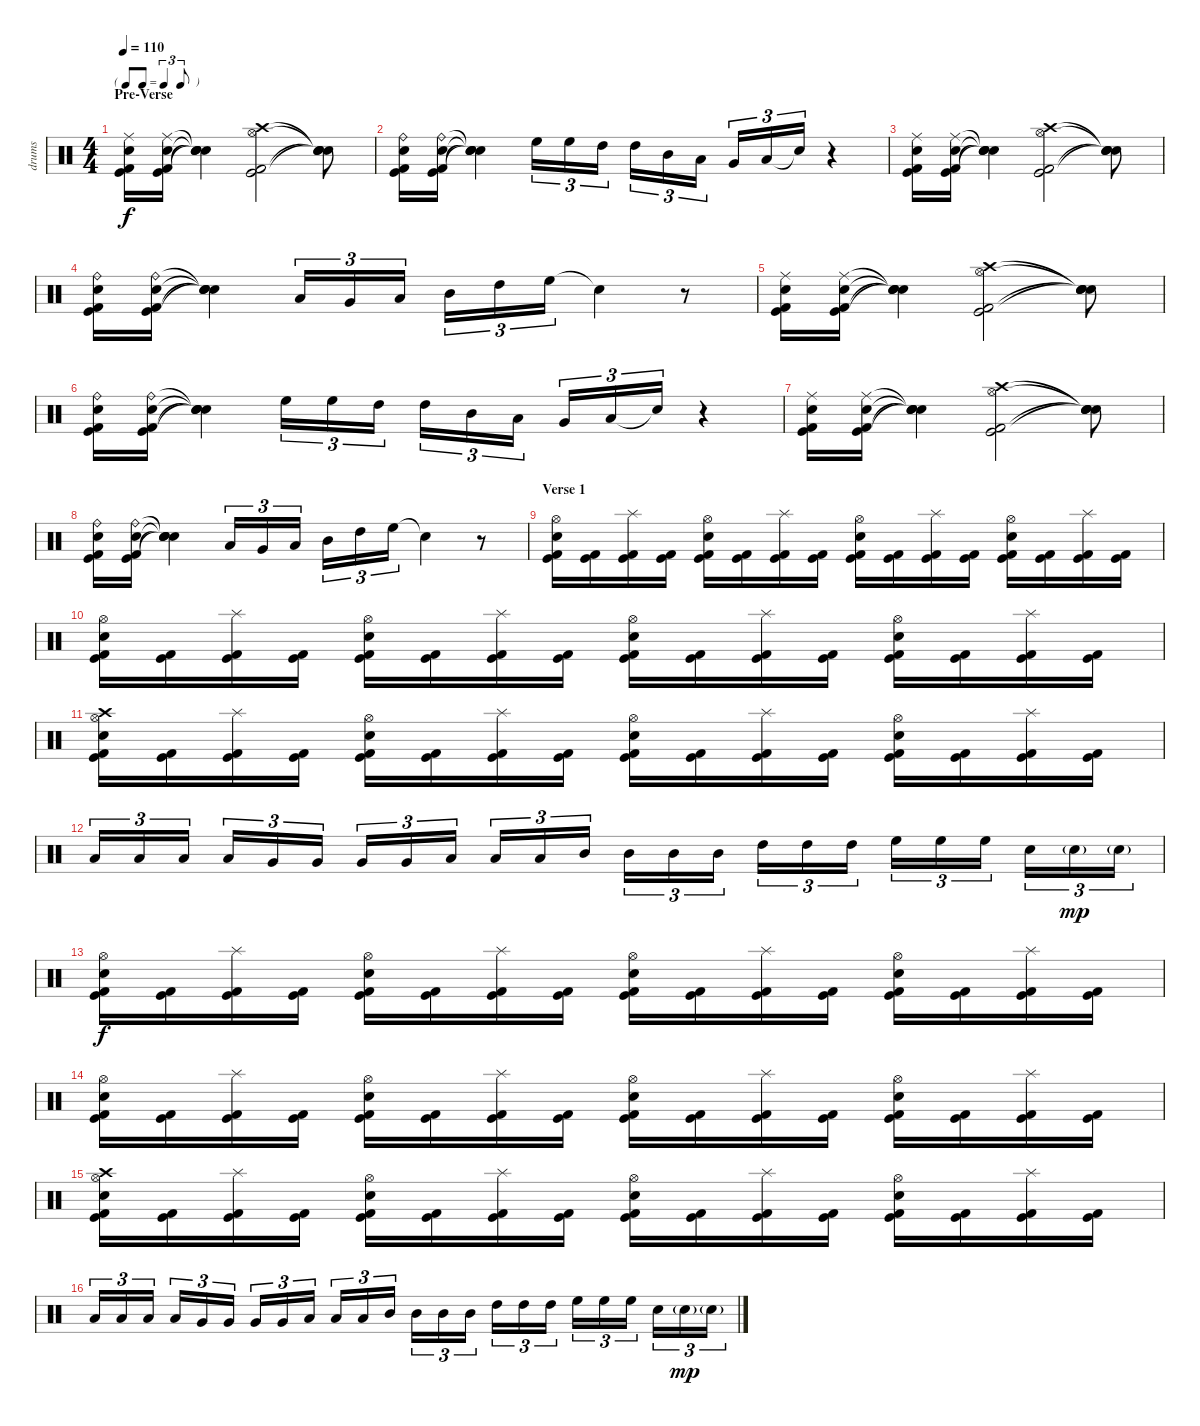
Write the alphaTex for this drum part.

\track ("drums" "drums") {instrument percussion}
\staff {score}
\articulation defaults
\ts (4 4)
\tf triplet8th
\section ("" "Pre-Verse")
\tempo 110
\clef neutral
\ks c
("Ride (middle)" "Electric Snare (hit)" "Kick (hit)" "Kick (hit) 2").16{dy f} ("Ride (middle)" "Electric Snare (hit)" "Kick (hit)" "Kick (hit) 2").16 ("Snare (hit)"{t} "Snare (hit)"{t} "Snare (hit)"{t} "Snare (hit)"{t}).4 ("Crash high (hit)" "Hi-Hat (open)" "Kick (hit)" "Kick (hit) 2").2 ("Snare (hit)"{t} "Snare (hit)"{t} "Snare (hit)"{t} "Snare (hit)"{t}).8 |
("Ride (bell)" "Snare (hit) 2" "Kick (hit)" "Kick (hit) 2").16 ("Ride (bell)" "Snare (hit) 2" "Kick (hit)" "Kick (hit) 2").16 ("Snare (hit)"{t} "Snare (hit)"{t} "Snare (hit)"{t} "Snare (hit)"{t}).4 "High Floor Tom (hit)".16{tu (3 2)} "High Floor Tom (hit)".16{tu (3 2)} "High Tom (hit)".16{tu (3 2)} "High Tom (hit)".16{tu (3 2)} "Mid Tom (hit)".16{tu (3 2)} "Low Tom (hit)".16{tu (3 2)} "Very Low Tom (hit)".16{tu (3 2)} "Low Floor Tom (hit)".16{tu (3 2)} "Snare (hit)"{t}.16{tu (3 2)} r.4 |
("Ride (middle)" "Electric Snare (hit)" "Kick (hit)" "Kick (hit) 2").16 ("Ride (middle)" "Electric Snare (hit)" "Kick (hit)" "Kick (hit) 2").16 ("Snare (hit)"{t} "Snare (hit)"{t} "Snare (hit)"{t} "Snare (hit)"{t}).4 ("Crash high (hit)" "Hi-Hat (open)" "Kick (hit)" "Kick (hit) 2").2 ("Snare (hit)"{t} "Snare (hit)"{t} "Snare (hit)"{t} "Snare (hit)"{t}).8 |
("Ride (bell)" "Snare (hit) 2" "Kick (hit)" "Kick (hit) 2").16 ("Ride (bell)" "Snare (hit) 2" "Kick (hit)" "Kick (hit) 2").16 ("Snare (hit)"{t} "Snare (hit)"{t} "Snare (hit)"{t} "Snare (hit)"{t}).4 "Low Floor Tom (hit)".16{tu (3 2)} "Very Low Tom (hit)".16{tu (3 2)} "Low Tom (hit)".16{tu (3 2)} "Mid Tom (hit)".16{tu (3 2)} "High Tom (hit)".16{tu (3 2)} "High Floor Tom (hit)".16{tu (3 2)} "Snare (hit)"{t}.4 r.8 |
("Ride (middle)" "Electric Snare (hit)" "Kick (hit)" "Kick (hit) 2").16 ("Ride (middle)" "Electric Snare (hit)" "Kick (hit)" "Kick (hit) 2").16 ("Snare (hit)"{t} "Snare (hit)"{t} "Snare (hit)"{t} "Snare (hit)"{t}).4 ("Crash high (hit)" "Hi-Hat (open)" "Kick (hit)" "Kick (hit) 2").2 ("Snare (hit)"{t} "Snare (hit)"{t} "Snare (hit)"{t} "Snare (hit)"{t}).8 |
("Ride (bell)" "Snare (hit) 2" "Kick (hit)" "Kick (hit) 2").16 ("Ride (bell)" "Snare (hit) 2" "Kick (hit)" "Kick (hit) 2").16 ("Snare (hit)"{t} "Snare (hit)"{t} "Snare (hit)"{t} "Snare (hit)"{t}).4 "High Floor Tom (hit)".16{tu (3 2)} "High Floor Tom (hit)".16{tu (3 2)} "High Tom (hit)".16{tu (3 2)} "High Tom (hit)".16{tu (3 2)} "Mid Tom (hit)".16{tu (3 2)} "Low Tom (hit)".16{tu (3 2)} "Very Low Tom (hit)".16{tu (3 2)} "Low Floor Tom (hit)".16{tu (3 2)} "Snare (hit)"{t}.16{tu (3 2)} r.4 |
("Ride (middle)" "Electric Snare (hit)" "Kick (hit)" "Kick (hit) 2").16 ("Ride (middle)" "Electric Snare (hit)" "Kick (hit)" "Kick (hit) 2").16 ("Snare (hit)"{t} "Snare (hit)"{t} "Snare (hit)"{t} "Snare (hit)"{t}).4 ("Crash high (hit)" "Hi-Hat (open)" "Kick (hit)" "Kick (hit) 2").2 ("Snare (hit)"{t} "Snare (hit)"{t} "Snare (hit)"{t} "Snare (hit)"{t}).8 |
("Ride (bell)" "Snare (hit) 2" "Kick (hit)" "Kick (hit) 2").16 ("Ride (bell)" "Snare (hit) 2" "Kick (hit)" "Kick (hit) 2").16 ("Snare (hit)"{t} "Snare (hit)"{t} "Snare (hit)"{t} "Snare (hit)"{t}).4 "Low Floor Tom (hit)".16{tu (3 2)} "Very Low Tom (hit)".16{tu (3 2)} "Low Tom (hit)".16{tu (3 2)} "Mid Tom (hit)".16{tu (3 2)} "High Tom (hit)".16{tu (3 2)} "High Floor Tom (hit)".16{tu (3 2)} "Snare (hit)"{t}.4 r.8 |
\section ("" "Verse 1")
("Hi-Hat (open)" "Snare (hit) 2" "Kick (hit) 2" "Kick (hit)").16 ("Kick (hit) 2" "Kick (hit)").16 ("Splash (hit)" "Kick (hit) 2" "Kick (hit)").16 ("Kick (hit) 2" "Kick (hit)").16 ("Hi-Hat (open)" "Snare (hit) 2" "Kick (hit) 2" "Kick (hit)").16 ("Kick (hit) 2" "Kick (hit)").16 ("Splash (hit)" "Kick (hit) 2" "Kick (hit)").16 ("Kick (hit) 2" "Kick (hit)").16 ("Hi-Hat (open)" "Snare (hit) 2" "Kick (hit) 2" "Kick (hit)").16 ("Kick (hit) 2" "Kick (hit)").16 ("Splash (hit)" "Kick (hit) 2" "Kick (hit)").16 ("Kick (hit) 2" "Kick (hit)").16 ("Hi-Hat (open)" "Snare (hit) 2" "Kick (hit) 2" "Kick (hit)").16 ("Kick (hit) 2" "Kick (hit)").16 ("Splash (hit)" "Kick (hit) 2" "Kick (hit)").16 ("Kick (hit) 2" "Kick (hit)").16 |
("Hi-Hat (open)" "Snare (hit) 2" "Kick (hit) 2" "Kick (hit)").16 ("Kick (hit) 2" "Kick (hit)").16 ("Splash (hit)" "Kick (hit) 2" "Kick (hit)").16 ("Kick (hit) 2" "Kick (hit)").16 ("Hi-Hat (open)" "Snare (hit) 2" "Kick (hit) 2" "Kick (hit)").16 ("Kick (hit) 2" "Kick (hit)").16 ("Splash (hit)" "Kick (hit) 2" "Kick (hit)").16 ("Kick (hit) 2" "Kick (hit)").16 ("Hi-Hat (open)" "Snare (hit) 2" "Kick (hit) 2" "Kick (hit)").16 ("Kick (hit) 2" "Kick (hit)").16 ("Splash (hit)" "Kick (hit) 2" "Kick (hit)").16 ("Kick (hit) 2" "Kick (hit)").16 ("Hi-Hat (open)" "Snare (hit) 2" "Kick (hit) 2" "Kick (hit)").16 ("Kick (hit) 2" "Kick (hit)").16 ("Splash (hit)" "Kick (hit) 2" "Kick (hit)").16 ("Kick (hit) 2" "Kick (hit)").16 |
("Crash high (hit)" "Hi-Hat (open)" "Snare (hit) 2" "Kick (hit) 2" "Kick (hit)").16 ("Kick (hit) 2" "Kick (hit)").16 ("Splash (hit)" "Kick (hit) 2" "Kick (hit)").16 ("Kick (hit) 2" "Kick (hit)").16 ("Hi-Hat (open)" "Snare (hit) 2" "Kick (hit) 2" "Kick (hit)").16 ("Kick (hit) 2" "Kick (hit)").16 ("Splash (hit)" "Kick (hit) 2" "Kick (hit)").16 ("Kick (hit) 2" "Kick (hit)").16 ("Hi-Hat (open)" "Snare (hit) 2" "Kick (hit) 2" "Kick (hit)").16 ("Kick (hit) 2" "Kick (hit)").16 ("Splash (hit)" "Kick (hit) 2" "Kick (hit)").16 ("Kick (hit) 2" "Kick (hit)").16 ("Hi-Hat (open)" "Snare (hit) 2" "Kick (hit) 2" "Kick (hit)").16 ("Kick (hit) 2" "Kick (hit)").16 ("Splash (hit)" "Kick (hit) 2" "Kick (hit)").16 ("Kick (hit) 2" "Kick (hit)").16 |
"Low Floor Tom (hit)".16{tu (3 2)} "Low Floor Tom (hit)".16{tu (3 2)} "Low Floor Tom (hit)".16{tu (3 2)} "Low Floor Tom (hit)".16{tu (3 2)} "Very Low Tom (hit)".16{tu (3 2)} "Very Low Tom (hit)".16{tu (3 2)} "Very Low Tom (hit)".16{tu (3 2)} "Very Low Tom (hit)".16{tu (3 2)} "Low Tom (hit)".16{tu (3 2)} "Low Tom (hit)".16{tu (3 2)} "Low Tom (hit)".16{tu (3 2)} "Mid Tom (hit)".16{tu (3 2)} "Mid Tom (hit)".16{tu (3 2)} "Mid Tom (hit)".16{tu (3 2)} "Mid Tom (hit)".16{tu (3 2)} "High Tom (hit)".16{tu (3 2)} "High Tom (hit)".16{tu (3 2)} "High Tom (hit)".16{tu (3 2)} "High Floor Tom (hit)".16{tu (3 2)} "High Floor Tom (hit)".16{tu (3 2)} "High Floor Tom (hit)".16{tu (3 2)} "Electric Snare (hit)".16{tu (3 2)} "Snare (hit) 2"{g}.16{tu (3 2) dy mp} "Snare (hit) 2"{g}.16{tu (3 2)} |
("Hi-Hat (open)" "Snare (hit) 2" "Kick (hit) 2" "Kick (hit)").16{dy f} ("Kick (hit) 2" "Kick (hit)").16 ("Splash (hit)" "Kick (hit) 2" "Kick (hit)").16 ("Kick (hit) 2" "Kick (hit)").16 ("Hi-Hat (open)" "Snare (hit) 2" "Kick (hit) 2" "Kick (hit)").16 ("Kick (hit) 2" "Kick (hit)").16 ("Splash (hit)" "Kick (hit) 2" "Kick (hit)").16 ("Kick (hit) 2" "Kick (hit)").16 ("Hi-Hat (open)" "Snare (hit) 2" "Kick (hit) 2" "Kick (hit)").16 ("Kick (hit) 2" "Kick (hit)").16 ("Splash (hit)" "Kick (hit) 2" "Kick (hit)").16 ("Kick (hit) 2" "Kick (hit)").16 ("Hi-Hat (open)" "Snare (hit) 2" "Kick (hit) 2" "Kick (hit)").16 ("Kick (hit) 2" "Kick (hit)").16 ("Splash (hit)" "Kick (hit) 2" "Kick (hit)").16 ("Kick (hit) 2" "Kick (hit)").16 |
("Hi-Hat (open)" "Snare (hit) 2" "Kick (hit) 2" "Kick (hit)").16 ("Kick (hit) 2" "Kick (hit)").16 ("Splash (hit)" "Kick (hit) 2" "Kick (hit)").16 ("Kick (hit) 2" "Kick (hit)").16 ("Hi-Hat (open)" "Snare (hit) 2" "Kick (hit) 2" "Kick (hit)").16 ("Kick (hit) 2" "Kick (hit)").16 ("Splash (hit)" "Kick (hit) 2" "Kick (hit)").16 ("Kick (hit) 2" "Kick (hit)").16 ("Hi-Hat (open)" "Snare (hit) 2" "Kick (hit) 2" "Kick (hit)").16 ("Kick (hit) 2" "Kick (hit)").16 ("Splash (hit)" "Kick (hit) 2" "Kick (hit)").16 ("Kick (hit) 2" "Kick (hit)").16 ("Hi-Hat (open)" "Snare (hit) 2" "Kick (hit) 2" "Kick (hit)").16 ("Kick (hit) 2" "Kick (hit)").16 ("Splash (hit)" "Kick (hit) 2" "Kick (hit)").16 ("Kick (hit) 2" "Kick (hit)").16 |
("Crash high (hit)" "Hi-Hat (open)" "Snare (hit) 2" "Kick (hit) 2" "Kick (hit)").16 ("Kick (hit) 2" "Kick (hit)").16 ("Splash (hit)" "Kick (hit) 2" "Kick (hit)").16 ("Kick (hit) 2" "Kick (hit)").16 ("Hi-Hat (open)" "Snare (hit) 2" "Kick (hit) 2" "Kick (hit)").16 ("Kick (hit) 2" "Kick (hit)").16 ("Splash (hit)" "Kick (hit) 2" "Kick (hit)").16 ("Kick (hit) 2" "Kick (hit)").16 ("Hi-Hat (open)" "Snare (hit) 2" "Kick (hit) 2" "Kick (hit)").16 ("Kick (hit) 2" "Kick (hit)").16 ("Splash (hit)" "Kick (hit) 2" "Kick (hit)").16 ("Kick (hit) 2" "Kick (hit)").16 ("Hi-Hat (open)" "Snare (hit) 2" "Kick (hit) 2" "Kick (hit)").16 ("Kick (hit) 2" "Kick (hit)").16 ("Splash (hit)" "Kick (hit) 2" "Kick (hit)").16 ("Kick (hit) 2" "Kick (hit)").16 |
"Low Floor Tom (hit)".16{tu (3 2)} "Low Floor Tom (hit)".16{tu (3 2)} "Low Floor Tom (hit)".16{tu (3 2)} "Low Floor Tom (hit)".16{tu (3 2)} "Very Low Tom (hit)".16{tu (3 2)} "Very Low Tom (hit)".16{tu (3 2)} "Very Low Tom (hit)".16{tu (3 2)} "Very Low Tom (hit)".16{tu (3 2)} "Low Tom (hit)".16{tu (3 2)} "Low Tom (hit)".16{tu (3 2)} "Low Tom (hit)".16{tu (3 2)} "Mid Tom (hit)".16{tu (3 2)} "Mid Tom (hit)".16{tu (3 2)} "Mid Tom (hit)".16{tu (3 2)} "Mid Tom (hit)".16{tu (3 2)} "High Tom (hit)".16{tu (3 2)} "High Tom (hit)".16{tu (3 2)} "High Tom (hit)".16{tu (3 2)} "High Floor Tom (hit)".16{tu (3 2)} "High Floor Tom (hit)".16{tu (3 2)} "High Floor Tom (hit)".16{tu (3 2)} "Electric Snare (hit)".16{tu (3 2)} "Snare (hit) 2"{g}.16{tu (3 2) dy mp} "Snare (hit) 2"{g}.16{tu (3 2)}
